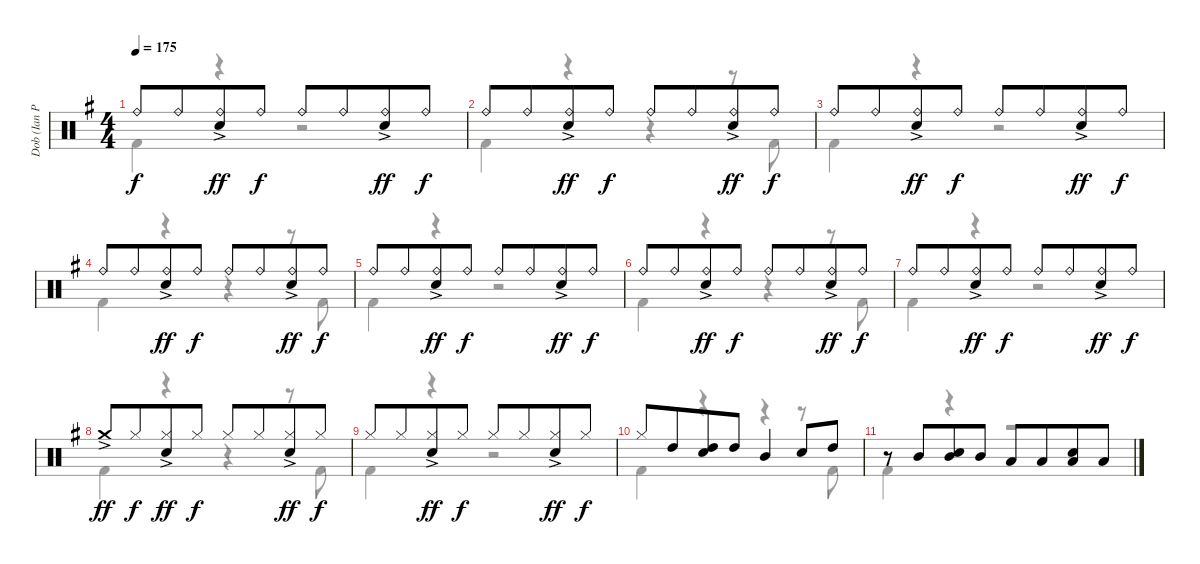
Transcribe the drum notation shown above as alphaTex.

\track ("Dob (Ian Paice)" "Dob (Ian P") {instrument percussion}
\staff {score}
\articulation defaults
\voice
\ts (4 4)
\tempo 175
\clef neutral
\ks g "Ride (bell)".8{dy f} "Ride (bell)".8{beam merge}
("Ride (bell)" "Electric Snare (hit)"{ac}).8{dy ff} "Ride (bell)".8{dy f} "Ride (bell)".8 "Ride (bell)".8{beam merge} ("Ride (bell)" "Electric Snare (hit)"{ac}).8{dy ff} "Ride (bell)".8{dy f} |
"Ride (bell)".8 "Ride (bell)".8{beam merge} ("Ride (bell)" "Electric Snare (hit)"{ac}).8{dy ff} "Ride (bell)".8{dy f} "Ride (bell)".8 "Ride (bell)".8{beam merge} ("Ride (bell)" "Electric Snare (hit)"{ac}).8{dy ff} "Ride (bell)".8{dy f} |
"Ride (bell)".8 "Ride (bell)".8{beam merge} ("Ride (bell)" "Electric Snare (hit)"{ac}).8{dy ff} "Ride (bell)".8{dy f} "Ride (bell)".8 "Ride (bell)".8{beam merge} ("Ride (bell)" "Electric Snare (hit)"{ac}).8{dy ff} "Ride (bell)".8{dy f} |
"Ride (bell)".8 "Ride (bell)".8{beam merge} ("Ride (bell)" "Electric Snare (hit)"{ac}).8{dy ff} "Ride (bell)".8{dy f} "Ride (bell)".8 "Ride (bell)".8{beam merge} ("Ride (bell)" "Electric Snare (hit)"{ac}).8{dy ff} "Ride (bell)".8{dy f} |
"Ride (bell)".8 "Ride (bell)".8{beam merge} ("Ride (bell)" "Electric Snare (hit)"{ac}).8{dy ff} "Ride (bell)".8{dy f} "Ride (bell)".8 "Ride (bell)".8{beam merge} ("Ride (bell)" "Electric Snare (hit)"{ac}).8{dy ff} "Ride (bell)".8{dy f} |
"Ride (bell)".8 "Ride (bell)".8{beam merge} ("Ride (bell)" "Electric Snare (hit)"{ac}).8{dy ff} "Ride (bell)".8{dy f} "Ride (bell)".8 "Ride (bell)".8{beam merge} ("Ride (bell)" "Electric Snare (hit)"{ac}).8{dy ff} "Ride (bell)".8{dy f} |
"Ride (bell)".8 "Ride (bell)".8{beam merge} ("Ride (bell)" "Electric Snare (hit)"{ac}).8{dy ff} "Ride (bell)".8{dy f} "Ride (bell)".8 "Ride (bell)".8{beam merge} ("Ride (bell)" "Electric Snare (hit)"{ac}).8{dy ff} "Ride (bell)".8{dy f} |
"Crash medium (hit)"{ac}.8{dy ff} "Hi-Hat (closed)".8{dy f beam merge} ("Hi-Hat (closed)" "Electric Snare (hit)"{ac}).8{dy ff} "Hi-Hat (closed)".8{dy f} "Hi-Hat (closed)".8 "Hi-Hat (closed)".8{beam merge} ("Hi-Hat (closed)" "Electric Snare (hit)"{ac}).8{dy ff} "Hi-Hat (closed)".8{dy f} |
"Hi-Hat (closed)".8 "Hi-Hat (closed)".8{beam merge} ("Hi-Hat (closed)" "Electric Snare (hit)"{ac}).8{dy ff} "Hi-Hat (closed)".8{dy f} "Hi-Hat (closed)".8 "Hi-Hat (closed)".8{beam merge} ("Hi-Hat (closed)" "Electric Snare (hit)"{ac}).8{dy ff} "Hi-Hat (closed)".8{dy f} |
"Hi-Hat (closed)".8 "High Tom (hit)".8{beam merge} ("High Tom (hit)" "Electric Snare (hit)").8 "High Tom (hit)".8 "Mid Tom (hit)".4 "Electric Snare (hit)".8 "High Tom (hit)".8 |
r.8 "Mid Tom (hit)".8{beam merge} ("Mid Tom (hit)" "Electric Snare (hit)").8 "Mid Tom (hit)".8 "Low Tom (hit)".8 "Low Tom (hit)".8{beam merge} ("Electric Snare (hit)" "Low Tom (hit)").8 "Low Tom (hit)".8 |
\voice
\clef neutral
\ottava regular
\simile none
\ks g "Kick (hit) 2".4{dy f}
r.4 r.2 |
"Kick (hit) 2".4 r.4 r.4 r.8 "Kick (hit) 2".8 |
"Kick (hit) 2".4 r.4 r.2 |
"Kick (hit) 2".4 r.4 r.4 r.8 "Kick (hit) 2".8 |
"Kick (hit) 2".4 r.4 r.2 |
"Kick (hit) 2".4 r.4 r.4 r.8 "Kick (hit) 2".8 |
"Kick (hit) 2".4 r.4 r.2 |
"Kick (hit) 2".4 r.4 r.4 r.8 "Kick (hit) 2".8 |
"Kick (hit) 2".4 r.4 r.2 |
"Kick (hit) 2".4 r.4 r.4 r.8 "Kick (hit) 2".8 |
"Kick (hit) 2".4 r.4 r.2 |
